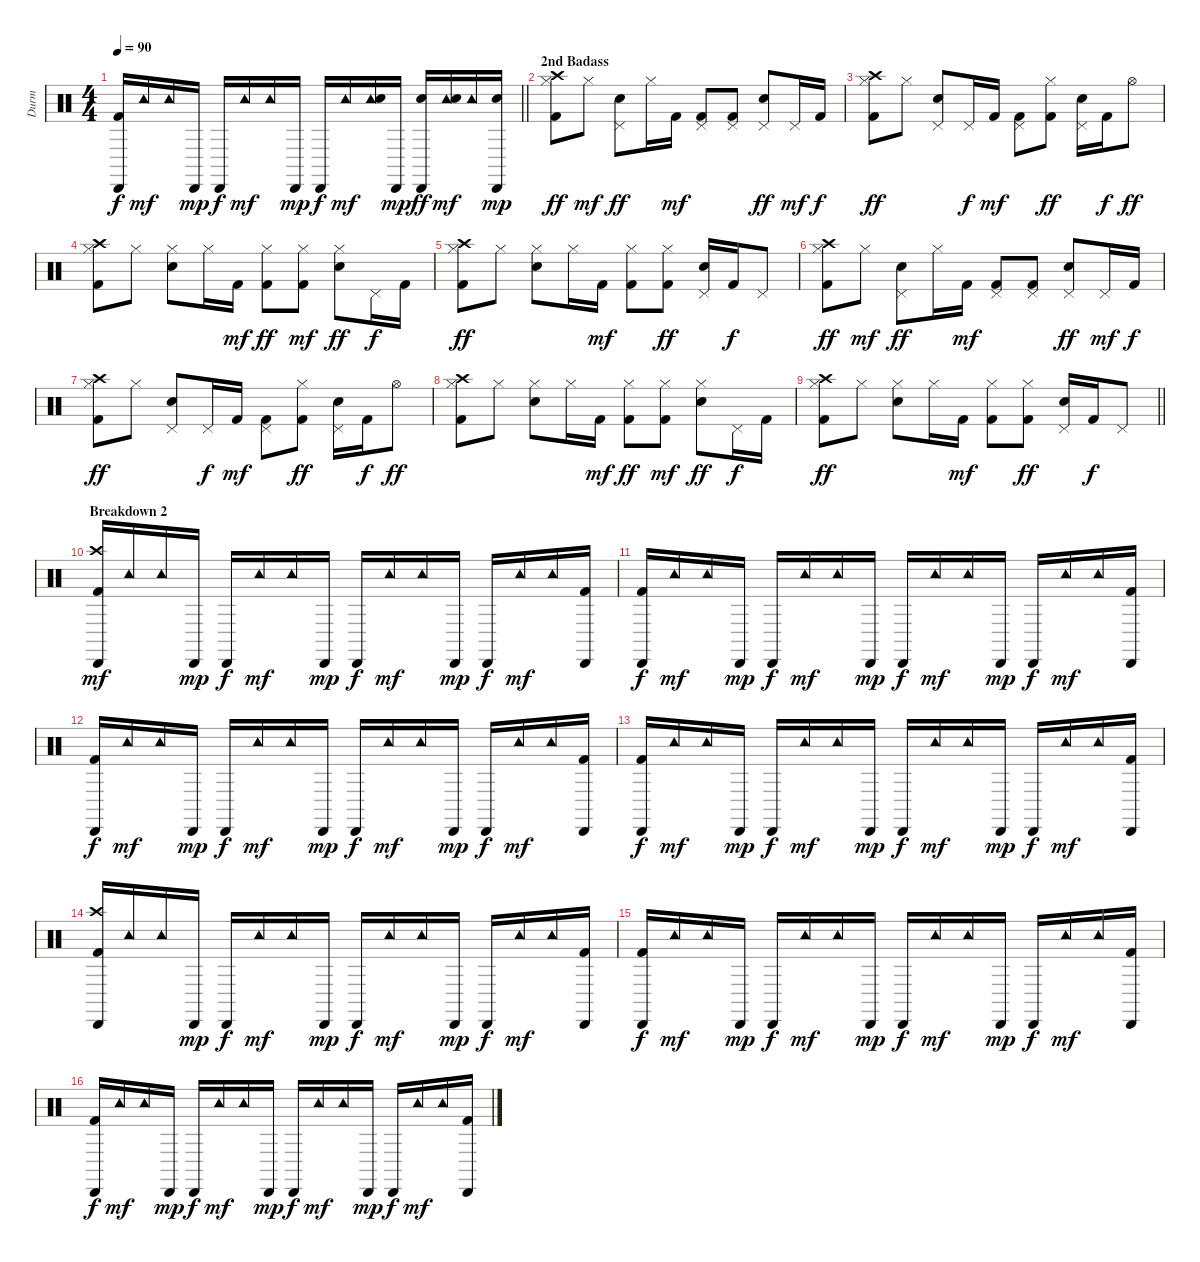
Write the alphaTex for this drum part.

\track ("Durm" "Durm") {instrument percussion}
\staff {score}
\articulation defaults
\ts (4 4)
\tempo 90
\clef neutral
\barLineRight lightlight
\ks c
("Cabasa (hit)" "Kick (hit) 2").16{dy f} "Tambourine (hit)".16{dy mf} "Tambourine (hit)".16 "Cabasa (hit)".16{dy mp} "Cabasa (hit)".16{dy f} "Tambourine (hit)".16{dy mf} "Tambourine (hit)".16 "Cabasa (hit)".16{dy mp} "Cabasa (hit)".16{dy f} "Tambourine (hit)".16{dy mf} ("Tambourine (hit)" "Electric Snare (hit)").16 "Cabasa (hit)".16{dy mp} ("Cabasa (hit)" "Electric Snare (hit)").16{dy ff} ("Tambourine (hit)" "Electric Snare (hit)").16{dy mf} "Tambourine (hit)".16 ("Cabasa (hit)" "Electric Snare (hit)").16{dy mp} |
\section ("" "2nd Badass")
("Hi-Hat (closed)" "Crash high (hit)" "Kick (hit) 2").8{dy ff} "Hi-Hat (closed)".8{dy mf} ("Pedal Hi-Hat (hit)" "Electric Snare (hit)").8{dy ff} "Hi-Hat (closed)".16 "Kick (hit) 2".16{dy mf} ("Pedal Hi-Hat (hit)" "Kick (hit) 2").8 ("Pedal Hi-Hat (hit)" "Kick (hit) 2").8 ("Pedal Hi-Hat (hit)" "Electric Snare (hit)").8{dy ff} "Pedal Hi-Hat (hit)".16{dy mf} "Kick (hit) 2".16{dy f} |
("Hi-Hat (closed)" "Crash high (hit)" "Kick (hit) 2").8{dy ff} "Hi-Hat (closed)".8 ("Pedal Hi-Hat (hit)" "Electric Snare (hit)").8 "Pedal Hi-Hat (hit)".16{dy f} "Kick (hit) 2".16{dy mf} ("Pedal Hi-Hat (hit)" "Kick (hit) 2").8 ("Hi-Hat (closed)" "Kick (hit) 2").8{dy ff} ("Pedal Hi-Hat (hit)" "Electric Snare (hit)").16 "Kick (hit) 2".16{dy f} "Hi-Hat (open)".8{dy ff} |
("Hi-Hat (closed)" "Crash high (hit)" "Kick (hit) 2").8 "Hi-Hat (closed)".8 ("Hi-Hat (closed)" "Electric Snare (hit)").8 "Hi-Hat (closed)".16 "Kick (hit) 2".16{dy mf} ("Hi-Hat (closed)" "Kick (hit) 2").8{dy ff} ("Hi-Hat (closed)" "Kick (hit) 2").8{dy mf} ("Hi-Hat (closed)" "Electric Snare (hit)").8{dy ff} "Pedal Hi-Hat (hit)".16{dy f} "Kick (hit) 2".16 |
("Hi-Hat (closed)" "Crash high (hit)" "Kick (hit) 2").8{dy ff} "Hi-Hat (closed)".8 ("Hi-Hat (closed)" "Electric Snare (hit)").8 "Hi-Hat (closed)".16 "Kick (hit) 2".16{dy mf} ("Hi-Hat (closed)" "Kick (hit) 2").8 ("Hi-Hat (closed)" "Kick (hit) 2").8{dy ff} ("Pedal Hi-Hat (hit)" "Electric Snare (hit)").16 "Kick (hit) 2".16{dy f} "Pedal Hi-Hat (hit)".8 |
("Hi-Hat (closed)" "Crash high (hit)" "Kick (hit) 2").8{dy ff} "Hi-Hat (closed)".8{dy mf} ("Pedal Hi-Hat (hit)" "Electric Snare (hit)").8{dy ff} "Hi-Hat (closed)".16 "Kick (hit) 2".16{dy mf} ("Pedal Hi-Hat (hit)" "Kick (hit) 2").8 ("Pedal Hi-Hat (hit)" "Kick (hit) 2").8 ("Pedal Hi-Hat (hit)" "Electric Snare (hit)").8{dy ff} "Pedal Hi-Hat (hit)".16{dy mf} "Kick (hit) 2".16{dy f} |
("Hi-Hat (closed)" "Crash high (hit)" "Kick (hit) 2").8{dy ff} "Hi-Hat (closed)".8 ("Pedal Hi-Hat (hit)" "Electric Snare (hit)").8 "Pedal Hi-Hat (hit)".16{dy f} "Kick (hit) 2".16{dy mf} ("Pedal Hi-Hat (hit)" "Kick (hit) 2").8 ("Hi-Hat (closed)" "Kick (hit) 2").8{dy ff} ("Pedal Hi-Hat (hit)" "Electric Snare (hit)").16 "Kick (hit) 2".16{dy f} "Hi-Hat (open)".8{dy ff} |
("Hi-Hat (closed)" "Crash high (hit)" "Kick (hit) 2").8 "Hi-Hat (closed)".8 ("Hi-Hat (closed)" "Electric Snare (hit)").8 "Hi-Hat (closed)".16 "Kick (hit) 2".16{dy mf} ("Hi-Hat (closed)" "Kick (hit) 2").8{dy ff} ("Hi-Hat (closed)" "Kick (hit) 2").8{dy mf} ("Hi-Hat (closed)" "Electric Snare (hit)").8{dy ff} "Pedal Hi-Hat (hit)".16{dy f} "Kick (hit) 2".16 |
\barLineRight lightlight
("Hi-Hat (closed)" "Crash high (hit)" "Kick (hit) 2").8{dy ff} "Hi-Hat (closed)".8 ("Hi-Hat (closed)" "Electric Snare (hit)").8 "Hi-Hat (closed)".16 "Kick (hit) 2".16{dy mf} ("Hi-Hat (closed)" "Kick (hit) 2").8 ("Hi-Hat (closed)" "Kick (hit) 2").8{dy ff} ("Pedal Hi-Hat (hit)" "Electric Snare (hit)").16 "Kick (hit) 2".16{dy f} "Pedal Hi-Hat (hit)".8 |
\section ("" "Breakdown 2")
("Cabasa (hit)" "Crash high (hit)" "Kick (hit) 2").16{dy mf} "Tambourine (hit)".16 "Tambourine (hit)".16 "Cabasa (hit)".16{dy mp} "Cabasa (hit)".16{dy f} "Tambourine (hit)".16{dy mf} "Tambourine (hit)".16 "Cabasa (hit)".16{dy mp} "Cabasa (hit)".16{dy f} "Tambourine (hit)".16{dy mf} "Tambourine (hit)".16 "Cabasa (hit)".16{dy mp} "Cabasa (hit)".16{dy f} "Tambourine (hit)".16{dy mf} "Tambourine (hit)".16 ("Cabasa (hit)" "Kick (hit) 2").16 |
("Cabasa (hit)" "Kick (hit) 2").16{dy f} "Tambourine (hit)".16{dy mf} "Tambourine (hit)".16 "Cabasa (hit)".16{dy mp} "Cabasa (hit)".16{dy f} "Tambourine (hit)".16{dy mf} "Tambourine (hit)".16 "Cabasa (hit)".16{dy mp} "Cabasa (hit)".16{dy f} "Tambourine (hit)".16{dy mf} "Tambourine (hit)".16 "Cabasa (hit)".16{dy mp} "Cabasa (hit)".16{dy f} "Tambourine (hit)".16{dy mf} "Tambourine (hit)".16 ("Cabasa (hit)" "Kick (hit) 2").16 |
("Cabasa (hit)" "Kick (hit) 2").16{dy f} "Tambourine (hit)".16{dy mf} "Tambourine (hit)".16 "Cabasa (hit)".16{dy mp} "Cabasa (hit)".16{dy f} "Tambourine (hit)".16{dy mf} "Tambourine (hit)".16 "Cabasa (hit)".16{dy mp} "Cabasa (hit)".16{dy f} "Tambourine (hit)".16{dy mf} "Tambourine (hit)".16 "Cabasa (hit)".16{dy mp} "Cabasa (hit)".16{dy f} "Tambourine (hit)".16{dy mf} "Tambourine (hit)".16 ("Cabasa (hit)" "Kick (hit) 2").16 |
("Cabasa (hit)" "Kick (hit) 2").16{dy f} "Tambourine (hit)".16{dy mf} "Tambourine (hit)".16 "Cabasa (hit)".16{dy mp} "Cabasa (hit)".16{dy f} "Tambourine (hit)".16{dy mf} "Tambourine (hit)".16 "Cabasa (hit)".16{dy mp} "Cabasa (hit)".16{dy f} "Tambourine (hit)".16{dy mf} "Tambourine (hit)".16 "Cabasa (hit)".16{dy mp} "Cabasa (hit)".16{dy f} "Tambourine (hit)".16{dy mf} "Tambourine (hit)".16 ("Cabasa (hit)" "Kick (hit) 2").16 |
("Cabasa (hit)" "Crash high (hit)" "Kick (hit) 2").16 "Tambourine (hit)".16 "Tambourine (hit)".16 "Cabasa (hit)".16{dy mp} "Cabasa (hit)".16{dy f} "Tambourine (hit)".16{dy mf} "Tambourine (hit)".16 "Cabasa (hit)".16{dy mp} "Cabasa (hit)".16{dy f} "Tambourine (hit)".16{dy mf} "Tambourine (hit)".16 "Cabasa (hit)".16{dy mp} "Cabasa (hit)".16{dy f} "Tambourine (hit)".16{dy mf} "Tambourine (hit)".16 ("Cabasa (hit)" "Kick (hit) 2").16 |
("Cabasa (hit)" "Kick (hit) 2").16{dy f} "Tambourine (hit)".16{dy mf} "Tambourine (hit)".16 "Cabasa (hit)".16{dy mp} "Cabasa (hit)".16{dy f} "Tambourine (hit)".16{dy mf} "Tambourine (hit)".16 "Cabasa (hit)".16{dy mp} "Cabasa (hit)".16{dy f} "Tambourine (hit)".16{dy mf} "Tambourine (hit)".16 "Cabasa (hit)".16{dy mp} "Cabasa (hit)".16{dy f} "Tambourine (hit)".16{dy mf} "Tambourine (hit)".16 ("Cabasa (hit)" "Kick (hit) 2").16 |
("Cabasa (hit)" "Kick (hit) 2").16{dy f} "Tambourine (hit)".16{dy mf} "Tambourine (hit)".16 "Cabasa (hit)".16{dy mp} "Cabasa (hit)".16{dy f} "Tambourine (hit)".16{dy mf} "Tambourine (hit)".16 "Cabasa (hit)".16{dy mp} "Cabasa (hit)".16{dy f} "Tambourine (hit)".16{dy mf} "Tambourine (hit)".16 "Cabasa (hit)".16{dy mp} "Cabasa (hit)".16{dy f} "Tambourine (hit)".16{dy mf} "Tambourine (hit)".16 ("Cabasa (hit)" "Kick (hit) 2").16
